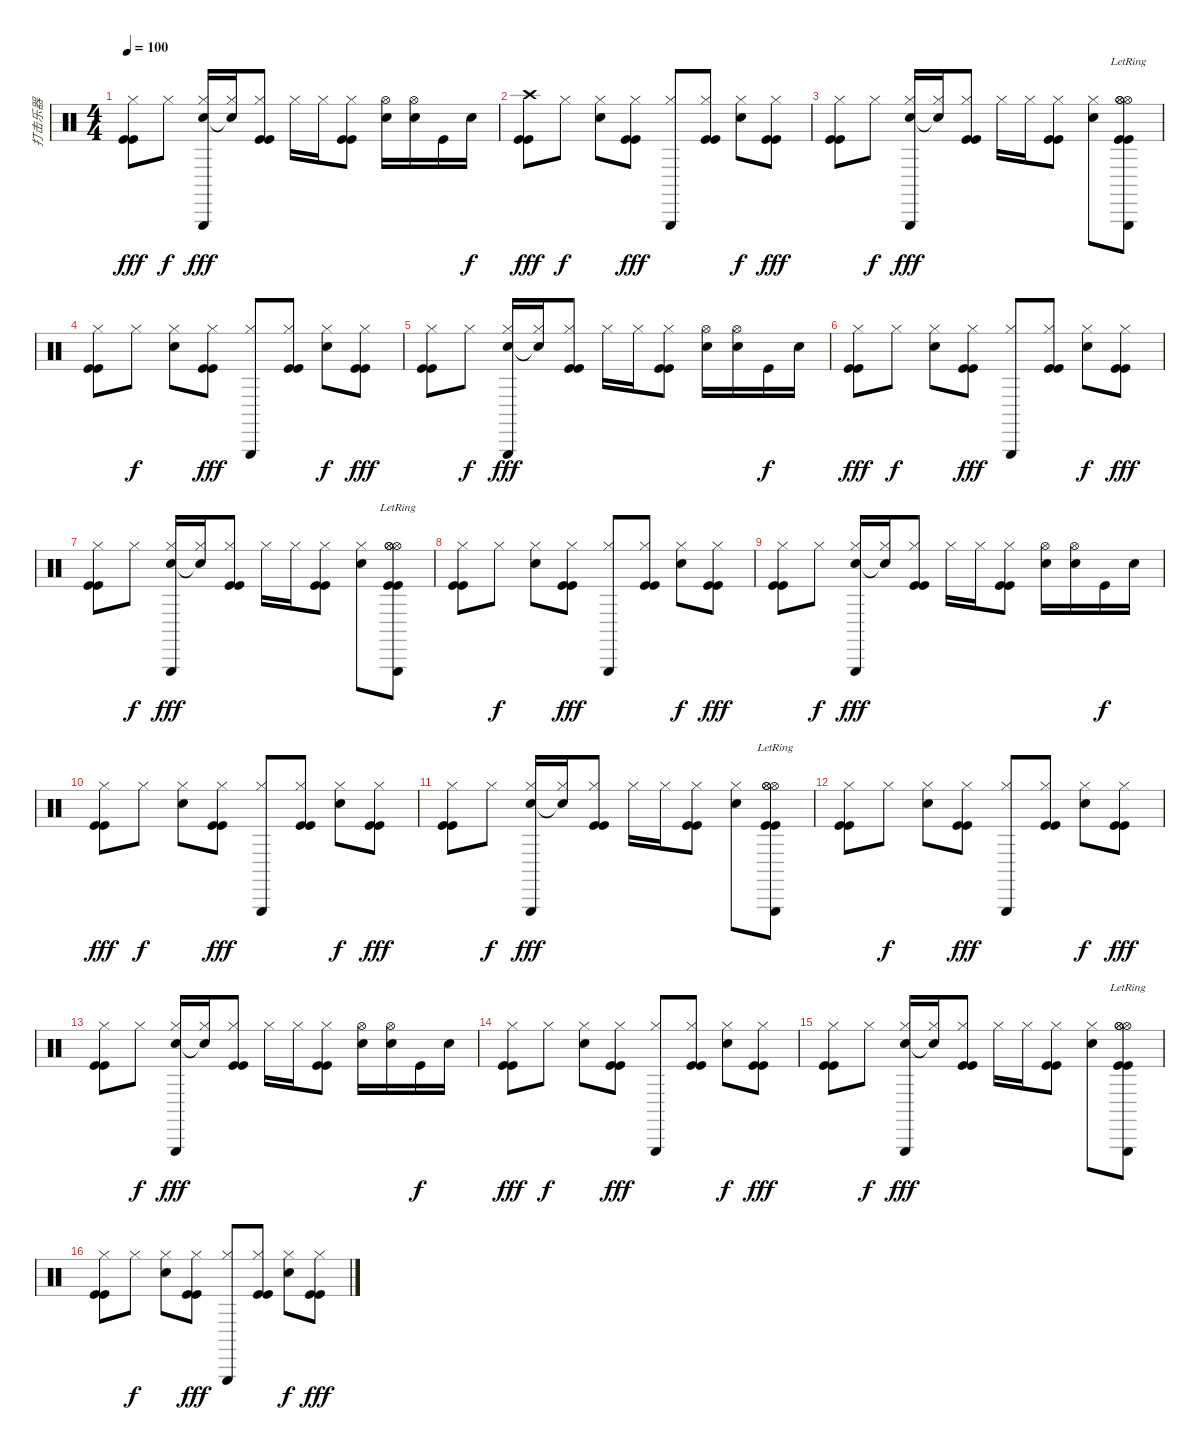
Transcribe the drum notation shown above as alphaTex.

\track ("打击乐器" "打击乐器") {instrument percussion}
\staff {score}
\articulation defaults
\ts (4 4)
\tempo 100
\clef neutral
\ks c
("Hi-Hat (closed)" "Kick (hit)" "Kick (hit)").8{dy fff} "Hi-Hat (closed)".8{dy f} ("Hi-Hat (closed)" "Electric Snare (hit)" "Triangle (hit)").16{dy fff} ("Hi-Hat (closed)" "Snare (hit)"{t}).16 ("Hi-Hat (closed)" "Kick (hit)" "Kick (hit)").8 "Hi-Hat (closed)".16 "Hi-Hat (closed)".16 ("Hi-Hat (closed)" "Kick (hit)" "Kick (hit)").8 ("Hi-Hat (open)" "Electric Snare (hit)").16 ("Hi-Hat (open)" "Electric Snare (hit)").16 "Kick (hit)".16 "Electric Snare (hit)".16{dy f} |
("Crash high (hit)" "Kick (hit)" "Kick (hit)").8{dy fff} "Hi-Hat (closed)".8{dy f} ("Hi-Hat (closed)" "Electric Snare (hit)").8 ("Hi-Hat (closed)" "Kick (hit)" "Kick (hit)").8{dy fff} ("Hi-Hat (closed)" "Triangle (hit)").8 ("Hi-Hat (closed)" "Kick (hit)" "Kick (hit)").8 ("Hi-Hat (closed)" "Electric Snare (hit)").8{dy f} ("Hi-Hat (closed)" "Kick (hit)" "Kick (hit)").8{dy fff} |
("Hi-Hat (closed)" "Kick (hit)" "Kick (hit)").8 "Hi-Hat (closed)".8{dy f} ("Hi-Hat (closed)" "Electric Snare (hit)" "Triangle (hit)").16{dy fff} ("Hi-Hat (closed)" "Snare (hit)"{t}).16 ("Hi-Hat (closed)" "Kick (hit)" "Kick (hit)").8 "Hi-Hat (closed)".16 "Hi-Hat (closed)".16 ("Hi-Hat (closed)" "Kick (hit)" "Kick (hit)").8 ("Hi-Hat (closed)" "Electric Snare (hit)").8 ("Hi-Hat (open)" "Hi-Hat (open)" "Hi-Hat (open)" "Triangle (hit)"{lr} "Kick (hit)" "Kick (hit)").8 |
("Hi-Hat (closed)" "Kick (hit)" "Kick (hit)").8 "Hi-Hat (closed)".8{dy f} ("Hi-Hat (closed)" "Electric Snare (hit)").8 ("Hi-Hat (closed)" "Kick (hit)" "Kick (hit)").8{dy fff} ("Hi-Hat (closed)" "Triangle (hit)").8 ("Hi-Hat (closed)" "Kick (hit)" "Kick (hit)").8 ("Hi-Hat (closed)" "Electric Snare (hit)").8{dy f} ("Hi-Hat (closed)" "Kick (hit)" "Kick (hit)").8{dy fff} |
("Hi-Hat (closed)" "Kick (hit)" "Kick (hit)").8 "Hi-Hat (closed)".8{dy f} ("Hi-Hat (closed)" "Electric Snare (hit)" "Triangle (hit)").16{dy fff} ("Hi-Hat (closed)" "Snare (hit)"{t}).16 ("Hi-Hat (closed)" "Kick (hit)" "Kick (hit)").8 "Hi-Hat (closed)".16 "Hi-Hat (closed)".16 ("Hi-Hat (closed)" "Kick (hit)" "Kick (hit)").8 ("Hi-Hat (open)" "Electric Snare (hit)").16 ("Hi-Hat (open)" "Electric Snare (hit)").16 "Kick (hit)".16{dy f} "Electric Snare (hit)".16 |
("Hi-Hat (closed)" "Kick (hit)" "Kick (hit)").8{dy fff} "Hi-Hat (closed)".8{dy f} ("Hi-Hat (closed)" "Electric Snare (hit)").8 ("Hi-Hat (closed)" "Kick (hit)" "Kick (hit)").8{dy fff} ("Hi-Hat (closed)" "Triangle (hit)").8 ("Hi-Hat (closed)" "Kick (hit)" "Kick (hit)").8 ("Hi-Hat (closed)" "Electric Snare (hit)").8{dy f} ("Hi-Hat (closed)" "Kick (hit)" "Kick (hit)").8{dy fff} |
("Hi-Hat (closed)" "Kick (hit)" "Kick (hit)").8 "Hi-Hat (closed)".8{dy f} ("Hi-Hat (closed)" "Electric Snare (hit)" "Triangle (hit)").16{dy fff} ("Hi-Hat (closed)" "Snare (hit)"{t}).16 ("Hi-Hat (closed)" "Kick (hit)" "Kick (hit)").8 "Hi-Hat (closed)".16 "Hi-Hat (closed)".16 ("Hi-Hat (closed)" "Kick (hit)" "Kick (hit)").8 ("Hi-Hat (closed)" "Electric Snare (hit)").8 ("Hi-Hat (open)" "Hi-Hat (open)" "Hi-Hat (open)" "Triangle (hit)"{lr} "Kick (hit)" "Kick (hit)").8 |
("Hi-Hat (closed)" "Kick (hit)" "Kick (hit)").8 "Hi-Hat (closed)".8{dy f} ("Hi-Hat (closed)" "Electric Snare (hit)").8 ("Hi-Hat (closed)" "Kick (hit)" "Kick (hit)").8{dy fff} ("Hi-Hat (closed)" "Triangle (hit)").8 ("Hi-Hat (closed)" "Kick (hit)" "Kick (hit)").8 ("Hi-Hat (closed)" "Electric Snare (hit)").8{dy f} ("Hi-Hat (closed)" "Kick (hit)" "Kick (hit)").8{dy fff} |
("Hi-Hat (closed)" "Kick (hit)" "Kick (hit)").8 "Hi-Hat (closed)".8{dy f} ("Hi-Hat (closed)" "Electric Snare (hit)" "Triangle (hit)").16{dy fff} ("Hi-Hat (closed)" "Snare (hit)"{t}).16 ("Hi-Hat (closed)" "Kick (hit)" "Kick (hit)").8 "Hi-Hat (closed)".16 "Hi-Hat (closed)".16 ("Hi-Hat (closed)" "Kick (hit)" "Kick (hit)").8 ("Hi-Hat (open)" "Electric Snare (hit)").16 ("Hi-Hat (open)" "Electric Snare (hit)").16 "Kick (hit)".16{dy f} "Electric Snare (hit)".16 |
("Hi-Hat (closed)" "Kick (hit)" "Kick (hit)").8{dy fff} "Hi-Hat (closed)".8{dy f} ("Hi-Hat (closed)" "Electric Snare (hit)").8 ("Hi-Hat (closed)" "Kick (hit)" "Kick (hit)").8{dy fff} ("Hi-Hat (closed)" "Triangle (hit)").8 ("Hi-Hat (closed)" "Kick (hit)" "Kick (hit)").8 ("Hi-Hat (closed)" "Electric Snare (hit)").8{dy f} ("Hi-Hat (closed)" "Kick (hit)" "Kick (hit)").8{dy fff} |
("Hi-Hat (closed)" "Kick (hit)" "Kick (hit)").8 "Hi-Hat (closed)".8{dy f} ("Hi-Hat (closed)" "Electric Snare (hit)" "Triangle (hit)").16{dy fff} ("Hi-Hat (closed)" "Snare (hit)"{t}).16 ("Hi-Hat (closed)" "Kick (hit)" "Kick (hit)").8 "Hi-Hat (closed)".16 "Hi-Hat (closed)".16 ("Hi-Hat (closed)" "Kick (hit)" "Kick (hit)").8 ("Hi-Hat (closed)" "Electric Snare (hit)").8 ("Hi-Hat (open)" "Hi-Hat (open)" "Hi-Hat (open)" "Triangle (hit)"{lr} "Kick (hit)" "Kick (hit)").8 |
("Hi-Hat (closed)" "Kick (hit)" "Kick (hit)").8 "Hi-Hat (closed)".8{dy f} ("Hi-Hat (closed)" "Electric Snare (hit)").8 ("Hi-Hat (closed)" "Kick (hit)" "Kick (hit)").8{dy fff} ("Hi-Hat (closed)" "Triangle (hit)").8 ("Hi-Hat (closed)" "Kick (hit)" "Kick (hit)").8 ("Hi-Hat (closed)" "Electric Snare (hit)").8{dy f} ("Hi-Hat (closed)" "Kick (hit)" "Kick (hit)").8{dy fff} |
("Hi-Hat (closed)" "Kick (hit)" "Kick (hit)").8 "Hi-Hat (closed)".8{dy f} ("Hi-Hat (closed)" "Electric Snare (hit)" "Triangle (hit)").16{dy fff} ("Hi-Hat (closed)" "Snare (hit)"{t}).16 ("Hi-Hat (closed)" "Kick (hit)" "Kick (hit)").8 "Hi-Hat (closed)".16 "Hi-Hat (closed)".16 ("Hi-Hat (closed)" "Kick (hit)" "Kick (hit)").8 ("Hi-Hat (open)" "Electric Snare (hit)").16 ("Hi-Hat (open)" "Electric Snare (hit)").16 "Kick (hit)".16{dy f} "Electric Snare (hit)".16 |
("Hi-Hat (closed)" "Kick (hit)" "Kick (hit)").8{dy fff} "Hi-Hat (closed)".8{dy f} ("Hi-Hat (closed)" "Electric Snare (hit)").8 ("Hi-Hat (closed)" "Kick (hit)" "Kick (hit)").8{dy fff} ("Hi-Hat (closed)" "Triangle (hit)").8 ("Hi-Hat (closed)" "Kick (hit)" "Kick (hit)").8 ("Hi-Hat (closed)" "Electric Snare (hit)").8{dy f} ("Hi-Hat (closed)" "Kick (hit)" "Kick (hit)").8{dy fff} |
("Hi-Hat (closed)" "Kick (hit)" "Kick (hit)").8 "Hi-Hat (closed)".8{dy f} ("Hi-Hat (closed)" "Electric Snare (hit)" "Triangle (hit)").16{dy fff} ("Hi-Hat (closed)" "Snare (hit)"{t}).16 ("Hi-Hat (closed)" "Kick (hit)" "Kick (hit)").8 "Hi-Hat (closed)".16 "Hi-Hat (closed)".16 ("Hi-Hat (closed)" "Kick (hit)" "Kick (hit)").8 ("Hi-Hat (closed)" "Electric Snare (hit)").8 ("Hi-Hat (open)" "Hi-Hat (open)" "Hi-Hat (open)" "Triangle (hit)"{lr} "Kick (hit)" "Kick (hit)").8 |
("Hi-Hat (closed)" "Kick (hit)" "Kick (hit)").8 "Hi-Hat (closed)".8{dy f} ("Hi-Hat (closed)" "Electric Snare (hit)").8 ("Hi-Hat (closed)" "Kick (hit)" "Kick (hit)").8{dy fff} ("Hi-Hat (closed)" "Triangle (hit)").8 ("Hi-Hat (closed)" "Kick (hit)" "Kick (hit)").8 ("Hi-Hat (closed)" "Electric Snare (hit)").8{dy f} ("Hi-Hat (closed)" "Kick (hit)" "Kick (hit)").8{dy fff}
